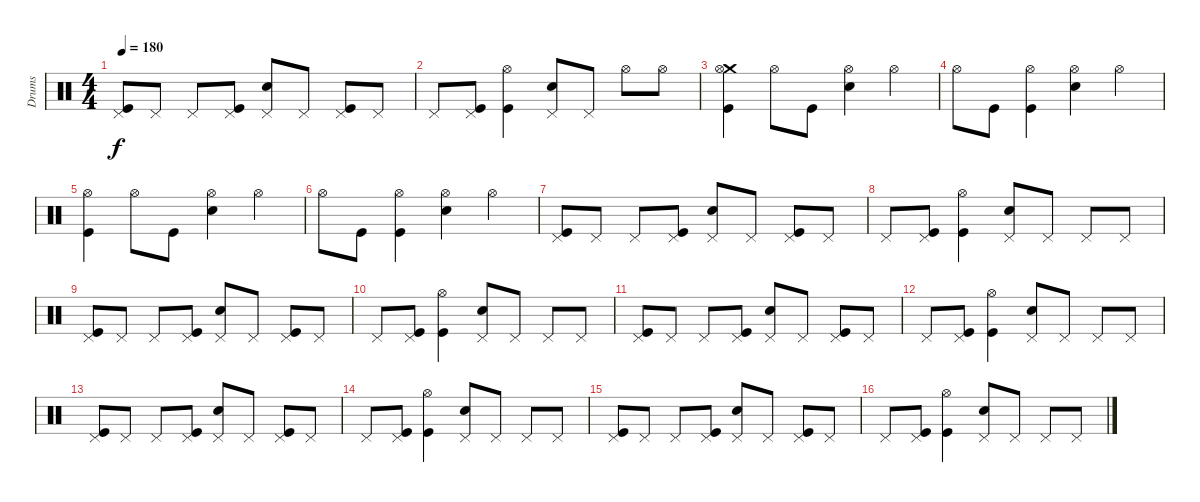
\track ("Drums" "Drums") {instrument percussion}
\staff {score}
\articulation defaults
\ts (4 4)
\tempo 180
\clef neutral
\ks c
("Pedal Hi-Hat (hit)" "Kick (hit)").8{dy f} "Pedal Hi-Hat (hit)".8 "Pedal Hi-Hat (hit)".8 ("Pedal Hi-Hat (hit)" "Kick (hit)").8 ("Pedal Hi-Hat (hit)" "Electric Snare (hit)").8 "Pedal Hi-Hat (hit)".8 ("Pedal Hi-Hat (hit)" "Kick (hit)").8 "Pedal Hi-Hat (hit)".8 |
"Pedal Hi-Hat (hit)".8 ("Pedal Hi-Hat (hit)" "Kick (hit)").8 ("Hi-Hat (open)" "Kick (hit)").4 ("Pedal Hi-Hat (hit)" "Electric Snare (hit)").8 "Pedal Hi-Hat (hit)".8 "Hi-Hat (open)".8 "Hi-Hat (open)".8 |
("Crash medium (hit)" "Hi-Hat (open)" "Kick (hit)").4 "Hi-Hat (open)".8 "Kick (hit)".8 ("Hi-Hat (open)" "Electric Snare (hit)").4 "Hi-Hat (open)".4 |
"Hi-Hat (open)".8 "Kick (hit)".8 ("Hi-Hat (open)" "Kick (hit)").4 ("Hi-Hat (open)" "Electric Snare (hit)").4 "Hi-Hat (open)".4 |
("Hi-Hat (open)" "Kick (hit)").4 "Hi-Hat (open)".8 "Kick (hit)".8 ("Hi-Hat (open)" "Electric Snare (hit)").4 "Hi-Hat (open)".4 |
"Hi-Hat (open)".8 "Kick (hit)".8 ("Hi-Hat (open)" "Kick (hit)").4 ("Hi-Hat (open)" "Electric Snare (hit)").4 "Hi-Hat (open)".4 |
("Pedal Hi-Hat (hit)" "Kick (hit)").8 "Pedal Hi-Hat (hit)".8 "Pedal Hi-Hat (hit)".8 ("Pedal Hi-Hat (hit)" "Kick (hit)").8 ("Pedal Hi-Hat (hit)" "Electric Snare (hit)").8 "Pedal Hi-Hat (hit)".8 ("Pedal Hi-Hat (hit)" "Kick (hit)").8 "Pedal Hi-Hat (hit)".8 |
"Pedal Hi-Hat (hit)".8 ("Pedal Hi-Hat (hit)" "Kick (hit)").8 ("Hi-Hat (open)" "Kick (hit)").4 ("Pedal Hi-Hat (hit)" "Electric Snare (hit)").8 "Pedal Hi-Hat (hit)".8 "Pedal Hi-Hat (hit)".8 "Pedal Hi-Hat (hit)".8 |
("Pedal Hi-Hat (hit)" "Kick (hit)").8 "Pedal Hi-Hat (hit)".8 "Pedal Hi-Hat (hit)".8 ("Pedal Hi-Hat (hit)" "Kick (hit)").8 ("Pedal Hi-Hat (hit)" "Electric Snare (hit)").8 "Pedal Hi-Hat (hit)".8 ("Pedal Hi-Hat (hit)" "Kick (hit)").8 "Pedal Hi-Hat (hit)".8 |
"Pedal Hi-Hat (hit)".8 ("Pedal Hi-Hat (hit)" "Kick (hit)").8 ("Hi-Hat (open)" "Kick (hit)").4 ("Pedal Hi-Hat (hit)" "Electric Snare (hit)").8 "Pedal Hi-Hat (hit)".8 "Pedal Hi-Hat (hit)".8 "Pedal Hi-Hat (hit)".8 |
("Pedal Hi-Hat (hit)" "Kick (hit)").8 "Pedal Hi-Hat (hit)".8 "Pedal Hi-Hat (hit)".8 ("Pedal Hi-Hat (hit)" "Kick (hit)").8 ("Pedal Hi-Hat (hit)" "Electric Snare (hit)").8 "Pedal Hi-Hat (hit)".8 ("Pedal Hi-Hat (hit)" "Kick (hit)").8 "Pedal Hi-Hat (hit)".8 |
"Pedal Hi-Hat (hit)".8 ("Pedal Hi-Hat (hit)" "Kick (hit)").8 ("Hi-Hat (open)" "Kick (hit)").4 ("Pedal Hi-Hat (hit)" "Electric Snare (hit)").8 "Pedal Hi-Hat (hit)".8 "Pedal Hi-Hat (hit)".8 "Pedal Hi-Hat (hit)".8 |
("Pedal Hi-Hat (hit)" "Kick (hit)").8 "Pedal Hi-Hat (hit)".8 "Pedal Hi-Hat (hit)".8 ("Pedal Hi-Hat (hit)" "Kick (hit)").8 ("Pedal Hi-Hat (hit)" "Electric Snare (hit)").8 "Pedal Hi-Hat (hit)".8 ("Pedal Hi-Hat (hit)" "Kick (hit)").8 "Pedal Hi-Hat (hit)".8 |
"Pedal Hi-Hat (hit)".8 ("Pedal Hi-Hat (hit)" "Kick (hit)").8 ("Hi-Hat (open)" "Kick (hit)").4 ("Pedal Hi-Hat (hit)" "Electric Snare (hit)").8 "Pedal Hi-Hat (hit)".8 "Pedal Hi-Hat (hit)".8 "Pedal Hi-Hat (hit)".8 |
("Pedal Hi-Hat (hit)" "Kick (hit)").8 "Pedal Hi-Hat (hit)".8 "Pedal Hi-Hat (hit)".8 ("Pedal Hi-Hat (hit)" "Kick (hit)").8 ("Pedal Hi-Hat (hit)" "Electric Snare (hit)").8 "Pedal Hi-Hat (hit)".8 ("Pedal Hi-Hat (hit)" "Kick (hit)").8 "Pedal Hi-Hat (hit)".8 |
"Pedal Hi-Hat (hit)".8 ("Pedal Hi-Hat (hit)" "Kick (hit)").8 ("Hi-Hat (open)" "Kick (hit)").4 ("Pedal Hi-Hat (hit)" "Electric Snare (hit)").8 "Pedal Hi-Hat (hit)".8 "Pedal Hi-Hat (hit)".8 "Pedal Hi-Hat (hit)".8
